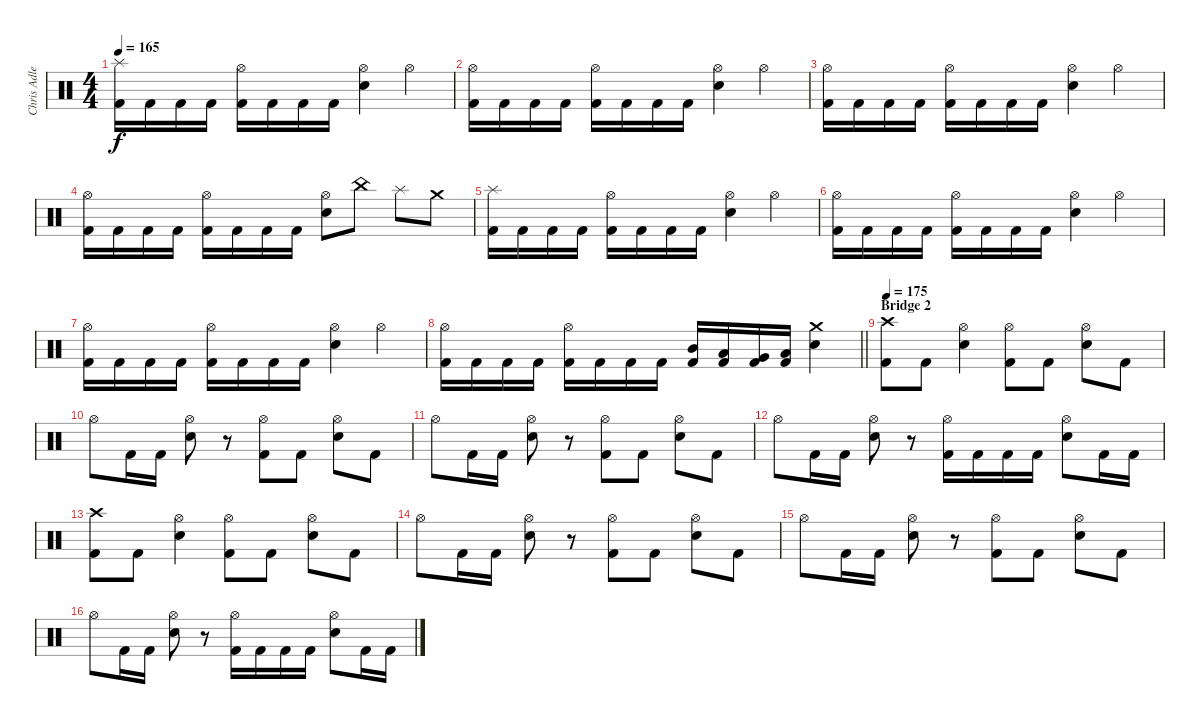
\track ("Chris Adler" "Chris Adle") {instrument percussion}
\staff {score}
\articulation defaults
\ts (4 4)
\tempo 165
\clef neutral
\ks c
("Splash (hit)" "Kick (hit) 2").16{dy f} "Kick (hit) 2".16 "Kick (hit) 2".16 "Kick (hit) 2".16 ("Hi-Hat (open)" "Kick (hit) 2").16 "Kick (hit) 2".16 "Kick (hit) 2".16 "Kick (hit) 2".16 ("Hi-Hat (open)" "Electric Snare (hit)").4 "Hi-Hat (open)".4 |
("Hi-Hat (open)" "Kick (hit) 2").16 "Kick (hit) 2".16 "Kick (hit) 2".16 "Kick (hit) 2".16 ("Hi-Hat (open)" "Kick (hit) 2").16 "Kick (hit) 2".16 "Kick (hit) 2".16 "Kick (hit) 2".16 ("Hi-Hat (open)" "Electric Snare (hit)").4 "Hi-Hat (open)".4 |
("Hi-Hat (open)" "Kick (hit) 2").16 "Kick (hit) 2".16 "Kick (hit) 2".16 "Kick (hit) 2".16 ("Hi-Hat (open)" "Kick (hit) 2").16 "Kick (hit) 2".16 "Kick (hit) 2".16 "Kick (hit) 2".16 ("Hi-Hat (open)" "Electric Snare (hit)").4 "Hi-Hat (open)".4 |
("Hi-Hat (open)" "Kick (hit) 2").16 "Kick (hit) 2".16 "Kick (hit) 2".16 "Kick (hit) 2".16 ("Hi-Hat (open)" "Kick (hit) 2").16 "Kick (hit) 2".16 "Kick (hit) 2".16 "Kick (hit) 2".16 ("Hi-Hat (open)" "Electric Snare (hit)").8 "China (hit)".8 "Splash (hit)".8 "Crash medium (hit)".8 |
("Splash (hit)" "Kick (hit) 2").16 "Kick (hit) 2".16 "Kick (hit) 2".16 "Kick (hit) 2".16 ("Hi-Hat (open)" "Kick (hit) 2").16 "Kick (hit) 2".16 "Kick (hit) 2".16 "Kick (hit) 2".16 ("Hi-Hat (open)" "Electric Snare (hit)").4 "Hi-Hat (open)".4 |
("Hi-Hat (open)" "Kick (hit) 2").16 "Kick (hit) 2".16 "Kick (hit) 2".16 "Kick (hit) 2".16 ("Hi-Hat (open)" "Kick (hit) 2").16 "Kick (hit) 2".16 "Kick (hit) 2".16 "Kick (hit) 2".16 ("Hi-Hat (open)" "Electric Snare (hit)").4 "Hi-Hat (open)".4 |
("Hi-Hat (open)" "Kick (hit) 2").16 "Kick (hit) 2".16 "Kick (hit) 2".16 "Kick (hit) 2".16 ("Hi-Hat (open)" "Kick (hit) 2").16 "Kick (hit) 2".16 "Kick (hit) 2".16 "Kick (hit) 2".16 ("Hi-Hat (open)" "Electric Snare (hit)").4 "Hi-Hat (open)".4 |
\barLineRight lightlight
("Hi-Hat (open)" "Kick (hit) 2").16 "Kick (hit) 2".16 "Kick (hit) 2".16 "Kick (hit) 2".16 ("Hi-Hat (open)" "Kick (hit) 2").16 "Kick (hit) 2".16 "Kick (hit) 2".16 "Kick (hit) 2".16 ("Mid Tom (hit)" "Kick (hit) 2").16 ("Low Tom (hit)" "Kick (hit) 2").16 ("Very Low Tom (hit)" "Kick (hit) 2").16 ("Low Floor Tom (hit)" "Kick (hit) 2").16 ("Crash medium (hit)" "Electric Snare (hit)").4 |
\section ("" "Bridge 2")
\tempo 175
("Crash high (hit)" "Kick (hit) 2").8 "Kick (hit) 2".8 ("Hi-Hat (open)" "Electric Snare (hit)").4 ("Hi-Hat (open)" "Kick (hit) 2").8 "Kick (hit) 2".8 ("Hi-Hat (open)" "Electric Snare (hit)").8 "Kick (hit) 2".8 |
"Hi-Hat (open)".8 "Kick (hit) 2".16 "Kick (hit) 2".16 ("Hi-Hat (open)" "Electric Snare (hit)").8 r.8 ("Hi-Hat (open)" "Kick (hit) 2").8 "Kick (hit) 2".8 ("Hi-Hat (open)" "Electric Snare (hit)").8 "Kick (hit) 2".8 |
"Hi-Hat (open)".8 "Kick (hit) 2".16 "Kick (hit) 2".16 ("Hi-Hat (open)" "Electric Snare (hit)").8 r.8 ("Hi-Hat (open)" "Kick (hit) 2").8 "Kick (hit) 2".8 ("Hi-Hat (open)" "Electric Snare (hit)").8 "Kick (hit) 2".8 |
"Hi-Hat (open)".8 "Kick (hit) 2".16 "Kick (hit) 2".16 ("Hi-Hat (open)" "Electric Snare (hit)").8 r.8 ("Hi-Hat (open)" "Kick (hit) 2").16 "Kick (hit) 2".16 "Kick (hit) 2".16 "Kick (hit) 2".16 ("Hi-Hat (open)" "Electric Snare (hit)").8 "Kick (hit) 2".16 "Kick (hit) 2".16 |
("Crash high (hit)" "Kick (hit) 2").8 "Kick (hit) 2".8 ("Hi-Hat (open)" "Electric Snare (hit)").4 ("Hi-Hat (open)" "Kick (hit) 2").8 "Kick (hit) 2".8 ("Hi-Hat (open)" "Electric Snare (hit)").8 "Kick (hit) 2".8 |
"Hi-Hat (open)".8 "Kick (hit) 2".16 "Kick (hit) 2".16 ("Hi-Hat (open)" "Electric Snare (hit)").8 r.8 ("Hi-Hat (open)" "Kick (hit) 2").8 "Kick (hit) 2".8 ("Hi-Hat (open)" "Electric Snare (hit)").8 "Kick (hit) 2".8 |
"Hi-Hat (open)".8 "Kick (hit) 2".16 "Kick (hit) 2".16 ("Hi-Hat (open)" "Electric Snare (hit)").8 r.8 ("Hi-Hat (open)" "Kick (hit) 2").8 "Kick (hit) 2".8 ("Hi-Hat (open)" "Electric Snare (hit)").8 "Kick (hit) 2".8 |
"Hi-Hat (open)".8 "Kick (hit) 2".16 "Kick (hit) 2".16 ("Hi-Hat (open)" "Electric Snare (hit)").8 r.8 ("Hi-Hat (open)" "Kick (hit) 2").16 "Kick (hit) 2".16 "Kick (hit) 2".16 "Kick (hit) 2".16 ("Hi-Hat (open)" "Electric Snare (hit)").8 "Kick (hit) 2".16 "Kick (hit) 2".16
